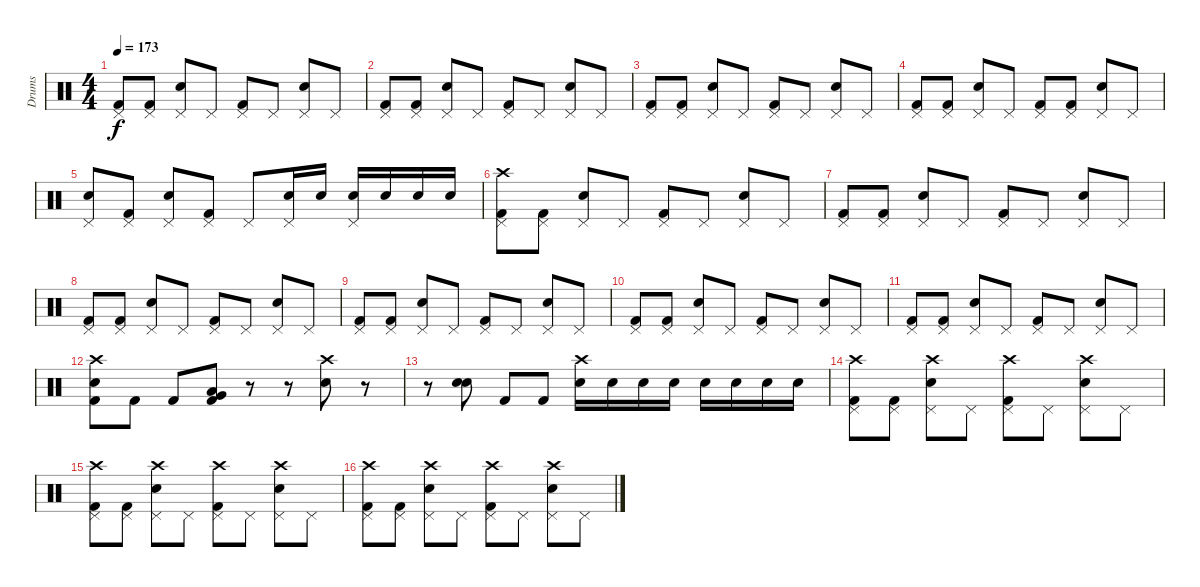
\track ("Drums" "Drums") {instrument percussion}
\staff {score}
\articulation defaults
\ts (4 4)
\tempo 173
\clef neutral
\ks c
("Pedal Hi-Hat (hit)" "Kick (hit) 2").8{dy f} ("Pedal Hi-Hat (hit)" "Kick (hit) 2").8 ("Pedal Hi-Hat (hit)" "Snare (hit) 2").8 "Pedal Hi-Hat (hit)".8 ("Pedal Hi-Hat (hit)" "Kick (hit) 2").8 "Pedal Hi-Hat (hit)".8 ("Pedal Hi-Hat (hit)" "Snare (hit) 2").8 "Pedal Hi-Hat (hit)".8 |
("Pedal Hi-Hat (hit)" "Kick (hit) 2").8 ("Pedal Hi-Hat (hit)" "Kick (hit) 2").8 ("Pedal Hi-Hat (hit)" "Snare (hit) 2").8 "Pedal Hi-Hat (hit)".8 ("Pedal Hi-Hat (hit)" "Kick (hit) 2").8 "Pedal Hi-Hat (hit)".8 ("Pedal Hi-Hat (hit)" "Snare (hit) 2").8 "Pedal Hi-Hat (hit)".8 |
("Pedal Hi-Hat (hit)" "Kick (hit) 2").8 ("Pedal Hi-Hat (hit)" "Kick (hit) 2").8 ("Pedal Hi-Hat (hit)" "Snare (hit) 2").8 "Pedal Hi-Hat (hit)".8 ("Pedal Hi-Hat (hit)" "Kick (hit) 2").8 "Pedal Hi-Hat (hit)".8 ("Pedal Hi-Hat (hit)" "Snare (hit) 2").8 "Pedal Hi-Hat (hit)".8 |
("Pedal Hi-Hat (hit)" "Kick (hit) 2").8 ("Pedal Hi-Hat (hit)" "Kick (hit) 2").8 ("Pedal Hi-Hat (hit)" "Snare (hit) 2").8 "Pedal Hi-Hat (hit)".8 ("Pedal Hi-Hat (hit)" "Kick (hit) 2").8 ("Pedal Hi-Hat (hit)" "Kick (hit) 2").8 ("Pedal Hi-Hat (hit)" "Snare (hit) 2").8 "Pedal Hi-Hat (hit)".8 |
("Pedal Hi-Hat (hit)" "Snare (hit) 2").8 ("Pedal Hi-Hat (hit)" "Kick (hit) 2").8 ("Pedal Hi-Hat (hit)" "Snare (hit) 2").8 ("Pedal Hi-Hat (hit)" "Kick (hit) 2").8 "Pedal Hi-Hat (hit)".8 ("Pedal Hi-Hat (hit)" "Snare (hit) 2").16 "Snare (hit) 2".16 ("Pedal Hi-Hat (hit)" "Snare (hit) 2").16 "Snare (hit) 2".16 "Snare (hit) 2".16 "Snare (hit) 2".16 |
("Crash high (hit)" "Pedal Hi-Hat (hit)" "Kick (hit) 2").8 ("Pedal Hi-Hat (hit)" "Kick (hit) 2").8 ("Pedal Hi-Hat (hit)" "Snare (hit) 2").8 "Pedal Hi-Hat (hit)".8 ("Pedal Hi-Hat (hit)" "Kick (hit) 2").8 "Pedal Hi-Hat (hit)".8 ("Pedal Hi-Hat (hit)" "Snare (hit) 2").8 "Pedal Hi-Hat (hit)".8 |
("Pedal Hi-Hat (hit)" "Kick (hit) 2").8 ("Pedal Hi-Hat (hit)" "Kick (hit) 2").8 ("Pedal Hi-Hat (hit)" "Snare (hit) 2").8 "Pedal Hi-Hat (hit)".8 ("Pedal Hi-Hat (hit)" "Kick (hit) 2").8 "Pedal Hi-Hat (hit)".8 ("Pedal Hi-Hat (hit)" "Snare (hit) 2").8 "Pedal Hi-Hat (hit)".8 |
("Pedal Hi-Hat (hit)" "Kick (hit) 2").8 ("Pedal Hi-Hat (hit)" "Kick (hit) 2").8 ("Pedal Hi-Hat (hit)" "Snare (hit) 2").8 "Pedal Hi-Hat (hit)".8 ("Pedal Hi-Hat (hit)" "Kick (hit) 2").8 "Pedal Hi-Hat (hit)".8 ("Pedal Hi-Hat (hit)" "Snare (hit) 2").8 "Pedal Hi-Hat (hit)".8 |
("Pedal Hi-Hat (hit)" "Kick (hit) 2").8 ("Pedal Hi-Hat (hit)" "Kick (hit) 2").8 ("Pedal Hi-Hat (hit)" "Snare (hit) 2").8 "Pedal Hi-Hat (hit)".8 ("Pedal Hi-Hat (hit)" "Kick (hit) 2").8 "Pedal Hi-Hat (hit)".8 ("Pedal Hi-Hat (hit)" "Snare (hit) 2").8 "Pedal Hi-Hat (hit)".8 |
("Pedal Hi-Hat (hit)" "Kick (hit) 2").8 ("Pedal Hi-Hat (hit)" "Kick (hit) 2").8 ("Pedal Hi-Hat (hit)" "Snare (hit) 2").8 "Pedal Hi-Hat (hit)".8 ("Pedal Hi-Hat (hit)" "Kick (hit) 2").8 "Pedal Hi-Hat (hit)".8 ("Pedal Hi-Hat (hit)" "Snare (hit) 2").8 "Pedal Hi-Hat (hit)".8 |
("Pedal Hi-Hat (hit)" "Kick (hit) 2").8 ("Pedal Hi-Hat (hit)" "Kick (hit) 2").8 ("Pedal Hi-Hat (hit)" "Snare (hit) 2").8 "Pedal Hi-Hat (hit)".8 ("Pedal Hi-Hat (hit)" "Kick (hit) 2").8 "Pedal Hi-Hat (hit)".8 ("Pedal Hi-Hat (hit)" "Snare (hit) 2").8 "Pedal Hi-Hat (hit)".8 |
("Crash high (hit)" "Snare (hit) 2" "Kick (hit) 2").8 "Kick (hit) 2".8 "Kick (hit) 2".8 ("Kick (hit) 2" "Very Low Tom (hit)" "Low Floor Tom (hit)").8 r.8 r.8 ("Snare (hit) 2" "Crash high (hit)").8 r.8 |
r.8 ("Snare (hit) 2" "Electric Snare (hit)").8 "Kick (hit) 2".8 "Kick (hit) 2".8 ("Crash high (hit)" "Snare (hit) 2").16 "Snare (hit) 2".16 "Snare (hit) 2".16 "Snare (hit) 2".16 "Snare (hit) 2".16 "Snare (hit) 2".16 "Snare (hit) 2".16 "Snare (hit) 2".16 |
("Crash high (hit)" "Pedal Hi-Hat (hit)" "Kick (hit) 2").8 ("Pedal Hi-Hat (hit)" "Kick (hit) 2").8 ("Crash high (hit)" "Pedal Hi-Hat (hit)" "Snare (hit) 2").8 "Pedal Hi-Hat (hit)".8 ("Crash high (hit)" "Pedal Hi-Hat (hit)" "Kick (hit) 2").8 "Pedal Hi-Hat (hit)".8 ("Crash high (hit)" "Pedal Hi-Hat (hit)" "Snare (hit) 2").8 "Pedal Hi-Hat (hit)".8 |
("Crash high (hit)" "Pedal Hi-Hat (hit)" "Kick (hit) 2").8 ("Pedal Hi-Hat (hit)" "Kick (hit) 2").8 ("Crash high (hit)" "Pedal Hi-Hat (hit)" "Snare (hit) 2").8 "Pedal Hi-Hat (hit)".8 ("Crash high (hit)" "Pedal Hi-Hat (hit)" "Kick (hit) 2").8 "Pedal Hi-Hat (hit)".8 ("Crash high (hit)" "Pedal Hi-Hat (hit)" "Snare (hit) 2").8 "Pedal Hi-Hat (hit)".8 |
("Crash high (hit)" "Pedal Hi-Hat (hit)" "Kick (hit) 2").8 ("Pedal Hi-Hat (hit)" "Kick (hit) 2").8 ("Crash high (hit)" "Pedal Hi-Hat (hit)" "Snare (hit) 2").8 "Pedal Hi-Hat (hit)".8 ("Crash high (hit)" "Pedal Hi-Hat (hit)" "Kick (hit) 2").8 "Pedal Hi-Hat (hit)".8 ("Crash high (hit)" "Pedal Hi-Hat (hit)" "Snare (hit) 2").8 "Pedal Hi-Hat (hit)".8
